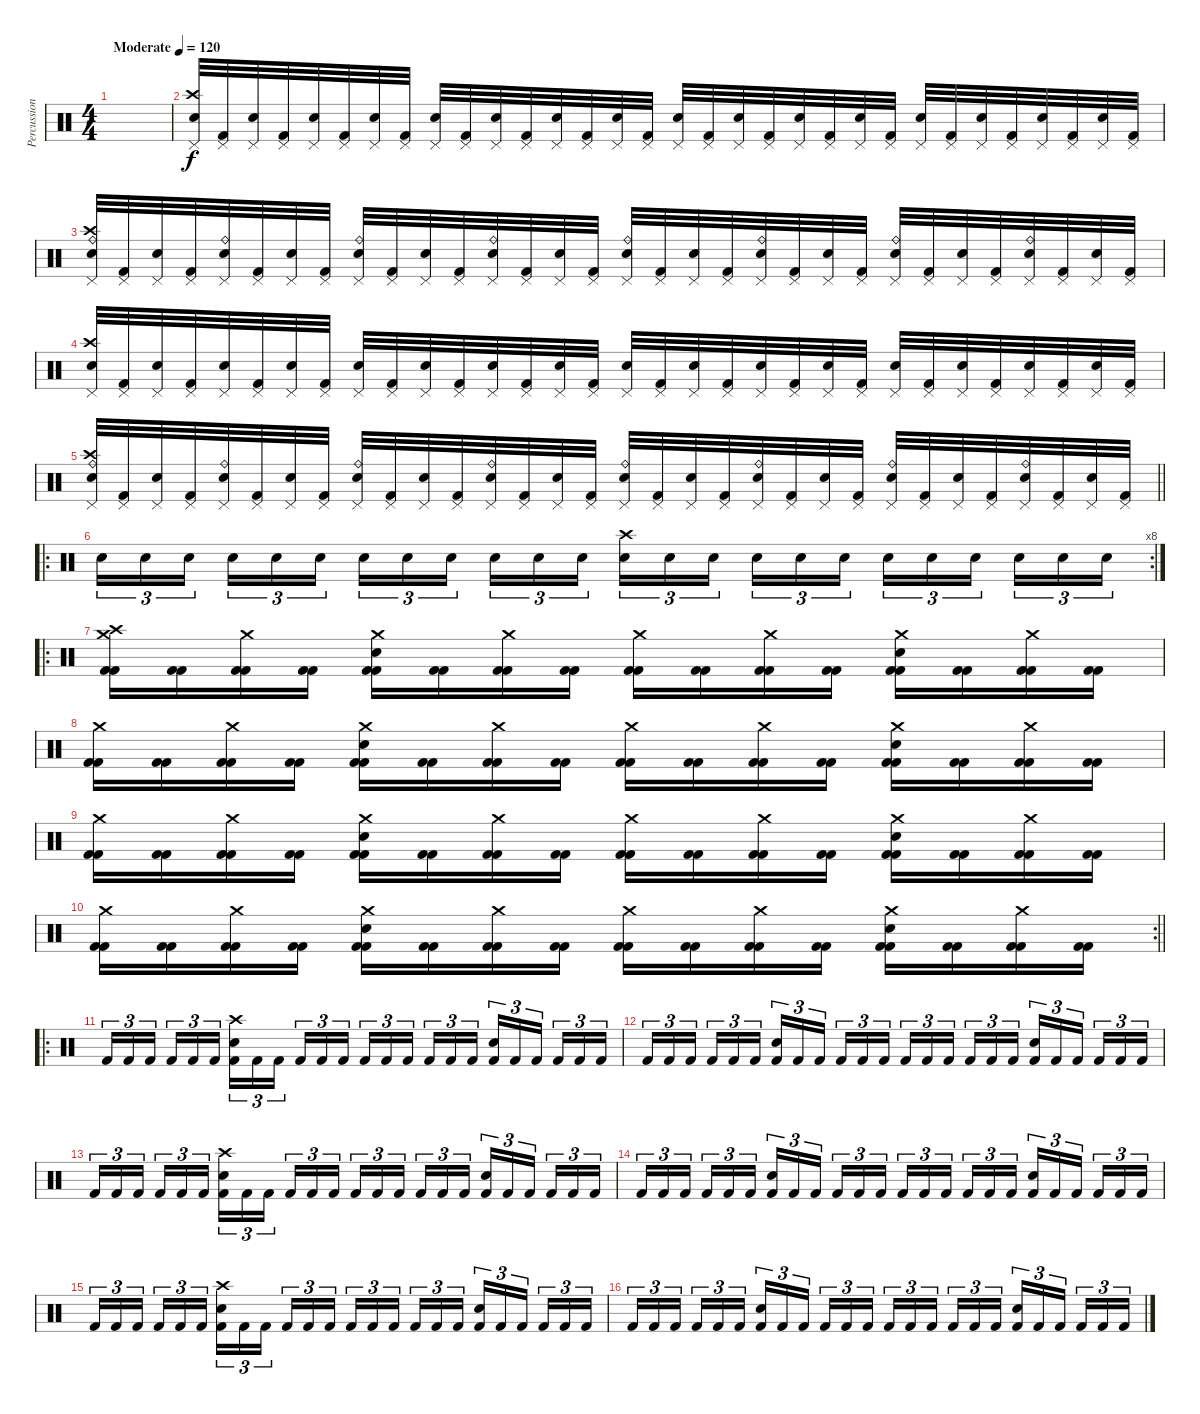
\track ("Percussions" "Percussion") {instrument percussion}
\staff {score}
\articulation defaults
\ts (4 4)
\tempo (120 "Moderate")
\clef neutral
\ks c
|
("Pedal Hi-Hat (hit)" "Crash high (hit)" "Electric Snare (hit)").32{volume 16} ("Pedal Hi-Hat (hit)" "Kick (hit) 2").32 ("Pedal Hi-Hat (hit)" "Electric Snare (hit)").32 ("Pedal Hi-Hat (hit)" "Kick (hit) 2").32 ("Pedal Hi-Hat (hit)" "Electric Snare (hit)").32 ("Pedal Hi-Hat (hit)" "Kick (hit) 2").32 ("Pedal Hi-Hat (hit)" "Electric Snare (hit)").32 ("Pedal Hi-Hat (hit)" "Kick (hit) 2").32 ("Pedal Hi-Hat (hit)" "Electric Snare (hit)").32 ("Pedal Hi-Hat (hit)" "Kick (hit) 2").32 ("Pedal Hi-Hat (hit)" "Electric Snare (hit)").32 ("Pedal Hi-Hat (hit)" "Kick (hit) 2").32 ("Pedal Hi-Hat (hit)" "Electric Snare (hit)").32 ("Pedal Hi-Hat (hit)" "Kick (hit) 2").32 ("Pedal Hi-Hat (hit)" "Electric Snare (hit)").32 ("Pedal Hi-Hat (hit)" "Kick (hit) 2").32 ("Pedal Hi-Hat (hit)" "Electric Snare (hit)").32 ("Pedal Hi-Hat (hit)" "Kick (hit) 2").32 ("Pedal Hi-Hat (hit)" "Electric Snare (hit)").32 ("Pedal Hi-Hat (hit)" "Kick (hit) 2").32 ("Pedal Hi-Hat (hit)" "Electric Snare (hit)").32 ("Pedal Hi-Hat (hit)" "Kick (hit) 2").32 ("Pedal Hi-Hat (hit)" "Electric Snare (hit)").32 ("Pedal Hi-Hat (hit)" "Kick (hit) 2").32 ("Pedal Hi-Hat (hit)" "Electric Snare (hit)").32 ("Pedal Hi-Hat (hit)" "Kick (hit) 2").32 ("Pedal Hi-Hat (hit)" "Electric Snare (hit)").32 ("Pedal Hi-Hat (hit)" "Kick (hit) 2").32 ("Pedal Hi-Hat (hit)" "Electric Snare (hit)").32 ("Pedal Hi-Hat (hit)" "Kick (hit) 2").32 ("Pedal Hi-Hat (hit)" "Electric Snare (hit)").32 ("Pedal Hi-Hat (hit)" "Kick (hit) 2").32 |
("Ride (bell)" "Pedal Hi-Hat (hit)" "Crash high (hit)" "Electric Snare (hit)").32 ("Pedal Hi-Hat (hit)" "Kick (hit) 2").32 ("Pedal Hi-Hat (hit)" "Electric Snare (hit)").32 ("Pedal Hi-Hat (hit)" "Kick (hit) 2").32 ("Ride (bell)" "Pedal Hi-Hat (hit)" "Electric Snare (hit)").32 ("Pedal Hi-Hat (hit)" "Kick (hit) 2").32 ("Pedal Hi-Hat (hit)" "Electric Snare (hit)").32 ("Pedal Hi-Hat (hit)" "Kick (hit) 2").32 ("Ride (bell)" "Pedal Hi-Hat (hit)" "Electric Snare (hit)").32 ("Pedal Hi-Hat (hit)" "Kick (hit) 2").32 ("Pedal Hi-Hat (hit)" "Electric Snare (hit)").32 ("Pedal Hi-Hat (hit)" "Kick (hit) 2").32 ("Ride (bell)" "Pedal Hi-Hat (hit)" "Electric Snare (hit)").32 ("Pedal Hi-Hat (hit)" "Kick (hit) 2").32 ("Pedal Hi-Hat (hit)" "Electric Snare (hit)").32 ("Pedal Hi-Hat (hit)" "Kick (hit) 2").32 ("Ride (bell)" "Pedal Hi-Hat (hit)" "Electric Snare (hit)").32 ("Pedal Hi-Hat (hit)" "Kick (hit) 2").32 ("Pedal Hi-Hat (hit)" "Electric Snare (hit)").32 ("Pedal Hi-Hat (hit)" "Kick (hit) 2").32 ("Ride (bell)" "Pedal Hi-Hat (hit)" "Electric Snare (hit)").32 ("Pedal Hi-Hat (hit)" "Kick (hit) 2").32 ("Pedal Hi-Hat (hit)" "Electric Snare (hit)").32 ("Pedal Hi-Hat (hit)" "Kick (hit) 2").32 ("Ride (bell)" "Pedal Hi-Hat (hit)" "Electric Snare (hit)").32 ("Pedal Hi-Hat (hit)" "Kick (hit) 2").32 ("Pedal Hi-Hat (hit)" "Electric Snare (hit)").32 ("Pedal Hi-Hat (hit)" "Kick (hit) 2").32 ("Ride (bell)" "Pedal Hi-Hat (hit)" "Electric Snare (hit)").32 ("Pedal Hi-Hat (hit)" "Kick (hit) 2").32 ("Pedal Hi-Hat (hit)" "Electric Snare (hit)").32 ("Pedal Hi-Hat (hit)" "Kick (hit) 2").32 |
("Pedal Hi-Hat (hit)" "Crash high (hit)" "Electric Snare (hit)").32 ("Pedal Hi-Hat (hit)" "Kick (hit) 2").32 ("Pedal Hi-Hat (hit)" "Electric Snare (hit)").32 ("Pedal Hi-Hat (hit)" "Kick (hit) 2").32 ("Pedal Hi-Hat (hit)" "Electric Snare (hit)").32 ("Pedal Hi-Hat (hit)" "Kick (hit) 2").32 ("Pedal Hi-Hat (hit)" "Electric Snare (hit)").32 ("Pedal Hi-Hat (hit)" "Kick (hit) 2").32 ("Pedal Hi-Hat (hit)" "Electric Snare (hit)").32 ("Pedal Hi-Hat (hit)" "Kick (hit) 2").32 ("Pedal Hi-Hat (hit)" "Electric Snare (hit)").32 ("Pedal Hi-Hat (hit)" "Kick (hit) 2").32 ("Pedal Hi-Hat (hit)" "Electric Snare (hit)").32 ("Pedal Hi-Hat (hit)" "Kick (hit) 2").32 ("Pedal Hi-Hat (hit)" "Electric Snare (hit)").32 ("Pedal Hi-Hat (hit)" "Kick (hit) 2").32 ("Pedal Hi-Hat (hit)" "Electric Snare (hit)").32 ("Pedal Hi-Hat (hit)" "Kick (hit) 2").32 ("Pedal Hi-Hat (hit)" "Electric Snare (hit)").32 ("Pedal Hi-Hat (hit)" "Kick (hit) 2").32 ("Pedal Hi-Hat (hit)" "Electric Snare (hit)").32 ("Pedal Hi-Hat (hit)" "Kick (hit) 2").32 ("Pedal Hi-Hat (hit)" "Electric Snare (hit)").32 ("Pedal Hi-Hat (hit)" "Kick (hit) 2").32 ("Pedal Hi-Hat (hit)" "Electric Snare (hit)").32 ("Pedal Hi-Hat (hit)" "Kick (hit) 2").32 ("Pedal Hi-Hat (hit)" "Electric Snare (hit)").32 ("Pedal Hi-Hat (hit)" "Kick (hit) 2").32 ("Pedal Hi-Hat (hit)" "Electric Snare (hit)").32 ("Pedal Hi-Hat (hit)" "Kick (hit) 2").32 ("Pedal Hi-Hat (hit)" "Electric Snare (hit)").32 ("Pedal Hi-Hat (hit)" "Kick (hit) 2").32 |
\barLineRight lightlight
("Ride (bell)" "Pedal Hi-Hat (hit)" "Crash high (hit)" "Electric Snare (hit)").32 ("Pedal Hi-Hat (hit)" "Kick (hit) 2").32 ("Pedal Hi-Hat (hit)" "Electric Snare (hit)").32 ("Pedal Hi-Hat (hit)" "Kick (hit) 2").32 ("Ride (bell)" "Pedal Hi-Hat (hit)" "Electric Snare (hit)").32 ("Pedal Hi-Hat (hit)" "Kick (hit) 2").32 ("Pedal Hi-Hat (hit)" "Electric Snare (hit)").32 ("Pedal Hi-Hat (hit)" "Kick (hit) 2").32 ("Ride (bell)" "Pedal Hi-Hat (hit)" "Electric Snare (hit)").32 ("Pedal Hi-Hat (hit)" "Kick (hit) 2").32 ("Pedal Hi-Hat (hit)" "Electric Snare (hit)").32 ("Pedal Hi-Hat (hit)" "Kick (hit) 2").32 ("Ride (bell)" "Pedal Hi-Hat (hit)" "Electric Snare (hit)").32 ("Pedal Hi-Hat (hit)" "Kick (hit) 2").32 ("Pedal Hi-Hat (hit)" "Electric Snare (hit)").32 ("Pedal Hi-Hat (hit)" "Kick (hit) 2").32 ("Ride (bell)" "Pedal Hi-Hat (hit)" "Electric Snare (hit)").32 ("Pedal Hi-Hat (hit)" "Kick (hit) 2").32 ("Pedal Hi-Hat (hit)" "Electric Snare (hit)").32 ("Pedal Hi-Hat (hit)" "Kick (hit) 2").32 ("Ride (bell)" "Pedal Hi-Hat (hit)" "Electric Snare (hit)").32 ("Pedal Hi-Hat (hit)" "Kick (hit) 2").32 ("Pedal Hi-Hat (hit)" "Electric Snare (hit)").32 ("Pedal Hi-Hat (hit)" "Kick (hit) 2").32 ("Ride (bell)" "Pedal Hi-Hat (hit)" "Electric Snare (hit)").32 ("Pedal Hi-Hat (hit)" "Kick (hit) 2").32 ("Pedal Hi-Hat (hit)" "Electric Snare (hit)").32 ("Pedal Hi-Hat (hit)" "Kick (hit) 2").32 ("Ride (bell)" "Pedal Hi-Hat (hit)" "Electric Snare (hit)").32 ("Pedal Hi-Hat (hit)" "Kick (hit) 2").32 ("Pedal Hi-Hat (hit)" "Electric Snare (hit)").32 ("Pedal Hi-Hat (hit)" "Kick (hit) 2").32 |
\ro
\rc 8 "Electric Snare (hit)".16{tu (3 2)} "Snare (hit) 2".16{tu (3 2)} "Electric Snare (hit)".16{tu (3 2) beam splitsecondary} "Snare (hit) 2".16{tu (3 2)} "Electric Snare (hit)".16{tu (3 2)} "Snare (hit) 2".16{tu (3 2)} "Electric Snare (hit)".16{tu (3 2)} "Snare (hit) 2".16{tu (3 2)} "Electric Snare (hit)".16{tu (3 2) beam splitsecondary} "Snare (hit) 2".16{tu (3 2)} "Electric Snare (hit)".16{tu (3 2)} "Snare (hit) 2".16{tu (3 2)}
("Crash high (hit)" "Electric Snare (hit)").16{tu (3 2)} "Snare (hit) 2".16{tu (3 2)} "Electric Snare (hit)".16{tu (3 2) beam splitsecondary} "Snare (hit) 2".16{tu (3 2)} "Electric Snare (hit)".16{tu (3 2)} "Snare (hit) 2".16{tu (3 2)} "Electric Snare (hit)".16{tu (3 2)} "Snare (hit) 2".16{tu (3 2)} "Electric Snare (hit)".16{tu (3 2) beam splitsecondary} "Snare (hit) 2".16{tu (3 2)} "Electric Snare (hit)".16{tu (3 2)} "Snare (hit) 2".16{tu (3 2)} |
\ro
("Kick (hit) 2" "Crash medium (hit)" "Crash high (hit)" "Kick (hit) 2").16 ("Kick (hit) 2" "Kick (hit) 2").16 ("Kick (hit) 2" "Crash medium (hit)" "Kick (hit) 2").16 ("Kick (hit) 2" "Kick (hit) 2").16 ("Kick (hit) 2" "Crash medium (hit)" "Electric Snare (hit)" "Kick (hit) 2").16 ("Kick (hit) 2" "Kick (hit) 2").16 ("Kick (hit) 2" "Crash medium (hit)" "Kick (hit) 2").16 ("Kick (hit) 2" "Kick (hit) 2").16 ("Kick (hit) 2" "Crash medium (hit)" "Kick (hit) 2").16 ("Kick (hit) 2" "Kick (hit) 2").16 ("Kick (hit) 2" "Crash medium (hit)" "Kick (hit) 2").16 ("Kick (hit) 2" "Kick (hit) 2").16 ("Kick (hit) 2" "Crash medium (hit)" "Electric Snare (hit)" "Kick (hit) 2").16 ("Kick (hit) 2" "Kick (hit) 2").16 ("Kick (hit) 2" "Crash medium (hit)" "Kick (hit) 2").16 ("Kick (hit) 2" "Kick (hit) 2").16 |
("Kick (hit) 2" "Crash medium (hit)" "Kick (hit) 2").16 ("Kick (hit) 2" "Kick (hit) 2").16 ("Kick (hit) 2" "Crash medium (hit)" "Kick (hit) 2").16 ("Kick (hit) 2" "Kick (hit) 2").16 ("Kick (hit) 2" "Crash medium (hit)" "Electric Snare (hit)" "Kick (hit) 2").16 ("Kick (hit) 2" "Kick (hit) 2").16 ("Kick (hit) 2" "Crash medium (hit)" "Kick (hit) 2").16 ("Kick (hit) 2" "Kick (hit) 2").16 ("Kick (hit) 2" "Crash medium (hit)" "Kick (hit) 2").16 ("Kick (hit) 2" "Kick (hit) 2").16 ("Kick (hit) 2" "Crash medium (hit)" "Kick (hit) 2").16 ("Kick (hit) 2" "Kick (hit) 2").16 ("Kick (hit) 2" "Crash medium (hit)" "Electric Snare (hit)" "Kick (hit) 2").16 ("Kick (hit) 2" "Kick (hit) 2").16 ("Kick (hit) 2" "Crash medium (hit)" "Kick (hit) 2").16 ("Kick (hit) 2" "Kick (hit) 2").16 |
("Kick (hit) 2" "Crash medium (hit)" "Kick (hit) 2").16 ("Kick (hit) 2" "Kick (hit) 2").16 ("Kick (hit) 2" "Crash medium (hit)" "Kick (hit) 2").16 ("Kick (hit) 2" "Kick (hit) 2").16 ("Kick (hit) 2" "Crash medium (hit)" "Electric Snare (hit)" "Kick (hit) 2").16 ("Kick (hit) 2" "Kick (hit) 2").16 ("Kick (hit) 2" "Crash medium (hit)" "Kick (hit) 2").16 ("Kick (hit) 2" "Kick (hit) 2").16 ("Kick (hit) 2" "Crash medium (hit)" "Kick (hit) 2").16 ("Kick (hit) 2" "Kick (hit) 2").16 ("Kick (hit) 2" "Crash medium (hit)" "Kick (hit) 2").16 ("Kick (hit) 2" "Kick (hit) 2").16 ("Kick (hit) 2" "Crash medium (hit)" "Electric Snare (hit)" "Kick (hit) 2").16 ("Kick (hit) 2" "Kick (hit) 2").16 ("Kick (hit) 2" "Crash medium (hit)" "Kick (hit) 2").16 ("Kick (hit) 2" "Kick (hit) 2").16 |
\rc 2
\barLineRight lightlight
("Kick (hit) 2" "Crash medium (hit)" "Kick (hit) 2").16 ("Kick (hit) 2" "Kick (hit) 2").16 ("Kick (hit) 2" "Crash medium (hit)" "Kick (hit) 2").16 ("Kick (hit) 2" "Kick (hit) 2").16 ("Kick (hit) 2" "Crash medium (hit)" "Electric Snare (hit)" "Kick (hit) 2").16 ("Kick (hit) 2" "Kick (hit) 2").16 ("Kick (hit) 2" "Crash medium (hit)" "Kick (hit) 2").16 ("Kick (hit) 2" "Kick (hit) 2").16 ("Kick (hit) 2" "Crash medium (hit)" "Kick (hit) 2").16 ("Kick (hit) 2" "Kick (hit) 2").16 ("Kick (hit) 2" "Crash medium (hit)" "Kick (hit) 2").16 ("Kick (hit) 2" "Kick (hit) 2").16 ("Kick (hit) 2" "Crash medium (hit)" "Electric Snare (hit)" "Kick (hit) 2").16 ("Kick (hit) 2" "Kick (hit) 2").16 ("Kick (hit) 2" "Crash medium (hit)" "Kick (hit) 2").16 ("Kick (hit) 2" "Kick (hit) 2").16 |
\ro "Kick (hit) 2".16{tu (3 2)} "Kick (hit) 2".16{tu (3 2)} "Kick (hit) 2".16{tu (3 2) beam splitsecondary} "Kick (hit) 2".16{tu (3 2)} "Kick (hit) 2".16{tu (3 2)} "Kick (hit) 2".16{tu (3 2)}
("Snare (hit) 2" "Crash high (hit)" "Kick (hit) 2").16{tu (3 2)} "Kick (hit) 2".16{tu (3 2)} "Kick (hit) 2".16{tu (3 2) beam splitsecondary} "Kick (hit) 2".16{tu (3 2)} "Kick (hit) 2".16{tu (3 2)} "Kick (hit) 2".16{tu (3 2)} "Kick (hit) 2".16{tu (3 2)} "Kick (hit) 2".16{tu (3 2)} "Kick (hit) 2".16{tu (3 2) beam splitsecondary} "Kick (hit) 2".16{tu (3 2)} "Kick (hit) 2".16{tu (3 2)} "Kick (hit) 2".16{tu (3 2)} ("Snare (hit) 2" "Kick (hit) 2").16{tu (3 2)} "Kick (hit) 2".16{tu (3 2)} "Kick (hit) 2".16{tu (3 2) beam splitsecondary} "Kick (hit) 2".16{tu (3 2)} "Kick (hit) 2".16{tu (3 2)} "Kick (hit) 2".16{tu (3 2)} |
"Kick (hit) 2".16{tu (3 2)} "Kick (hit) 2".16{tu (3 2)} "Kick (hit) 2".16{tu (3 2) beam splitsecondary} "Kick (hit) 2".16{tu (3 2)} "Kick (hit) 2".16{tu (3 2)} "Kick (hit) 2".16{tu (3 2)} ("Snare (hit) 2" "Kick (hit) 2").16{tu (3 2)} "Kick (hit) 2".16{tu (3 2)} "Kick (hit) 2".16{tu (3 2) beam splitsecondary} "Kick (hit) 2".16{tu (3 2)} "Kick (hit) 2".16{tu (3 2)} "Kick (hit) 2".16{tu (3 2)} "Kick (hit) 2".16{tu (3 2)} "Kick (hit) 2".16{tu (3 2)} "Kick (hit) 2".16{tu (3 2) beam splitsecondary} "Kick (hit) 2".16{tu (3 2)} "Kick (hit) 2".16{tu (3 2)} "Kick (hit) 2".16{tu (3 2)} ("Snare (hit) 2" "Kick (hit) 2").16{tu (3 2)} "Kick (hit) 2".16{tu (3 2)} "Kick (hit) 2".16{tu (3 2) beam splitsecondary} "Kick (hit) 2".16{tu (3 2)} "Kick (hit) 2".16{tu (3 2)} "Kick (hit) 2".16{tu (3 2)} |
"Kick (hit) 2".16{tu (3 2)} "Kick (hit) 2".16{tu (3 2)} "Kick (hit) 2".16{tu (3 2) beam splitsecondary} "Kick (hit) 2".16{tu (3 2)} "Kick (hit) 2".16{tu (3 2)} "Kick (hit) 2".16{tu (3 2)} ("Snare (hit) 2" "Crash high (hit)" "Kick (hit) 2").16{tu (3 2)} "Kick (hit) 2".16{tu (3 2)} "Kick (hit) 2".16{tu (3 2) beam splitsecondary} "Kick (hit) 2".16{tu (3 2)} "Kick (hit) 2".16{tu (3 2)} "Kick (hit) 2".16{tu (3 2)} "Kick (hit) 2".16{tu (3 2)} "Kick (hit) 2".16{tu (3 2)} "Kick (hit) 2".16{tu (3 2) beam splitsecondary} "Kick (hit) 2".16{tu (3 2)} "Kick (hit) 2".16{tu (3 2)} "Kick (hit) 2".16{tu (3 2)} ("Snare (hit) 2" "Kick (hit) 2").16{tu (3 2)} "Kick (hit) 2".16{tu (3 2)} "Kick (hit) 2".16{tu (3 2) beam splitsecondary} "Kick (hit) 2".16{tu (3 2)} "Kick (hit) 2".16{tu (3 2)} "Kick (hit) 2".16{tu (3 2)} |
"Kick (hit) 2".16{tu (3 2)} "Kick (hit) 2".16{tu (3 2)} "Kick (hit) 2".16{tu (3 2) beam splitsecondary} "Kick (hit) 2".16{tu (3 2)} "Kick (hit) 2".16{tu (3 2)} "Kick (hit) 2".16{tu (3 2)} ("Snare (hit) 2" "Kick (hit) 2").16{tu (3 2)} "Kick (hit) 2".16{tu (3 2)} "Kick (hit) 2".16{tu (3 2) beam splitsecondary} "Kick (hit) 2".16{tu (3 2)} "Kick (hit) 2".16{tu (3 2)} "Kick (hit) 2".16{tu (3 2)} "Kick (hit) 2".16{tu (3 2)} "Kick (hit) 2".16{tu (3 2)} "Kick (hit) 2".16{tu (3 2) beam splitsecondary} "Kick (hit) 2".16{tu (3 2)} "Kick (hit) 2".16{tu (3 2)} "Kick (hit) 2".16{tu (3 2)} ("Snare (hit) 2" "Kick (hit) 2").16{tu (3 2)} "Kick (hit) 2".16{tu (3 2)} "Kick (hit) 2".16{tu (3 2) beam splitsecondary} "Kick (hit) 2".16{tu (3 2)} "Kick (hit) 2".16{tu (3 2)} "Kick (hit) 2".16{tu (3 2)} |
"Kick (hit) 2".16{tu (3 2)} "Kick (hit) 2".16{tu (3 2)} "Kick (hit) 2".16{tu (3 2) beam splitsecondary} "Kick (hit) 2".16{tu (3 2)} "Kick (hit) 2".16{tu (3 2)} "Kick (hit) 2".16{tu (3 2)} ("Snare (hit) 2" "Crash high (hit)" "Kick (hit) 2").16{tu (3 2)} "Kick (hit) 2".16{tu (3 2)} "Kick (hit) 2".16{tu (3 2) beam splitsecondary} "Kick (hit) 2".16{tu (3 2)} "Kick (hit) 2".16{tu (3 2)} "Kick (hit) 2".16{tu (3 2)} "Kick (hit) 2".16{tu (3 2)} "Kick (hit) 2".16{tu (3 2)} "Kick (hit) 2".16{tu (3 2) beam splitsecondary} "Kick (hit) 2".16{tu (3 2)} "Kick (hit) 2".16{tu (3 2)} "Kick (hit) 2".16{tu (3 2)} ("Snare (hit) 2" "Kick (hit) 2").16{tu (3 2)} "Kick (hit) 2".16{tu (3 2)} "Kick (hit) 2".16{tu (3 2) beam splitsecondary} "Kick (hit) 2".16{tu (3 2)} "Kick (hit) 2".16{tu (3 2)} "Kick (hit) 2".16{tu (3 2)} |
"Kick (hit) 2".16{tu (3 2)} "Kick (hit) 2".16{tu (3 2)} "Kick (hit) 2".16{tu (3 2) beam splitsecondary} "Kick (hit) 2".16{tu (3 2)} "Kick (hit) 2".16{tu (3 2)} "Kick (hit) 2".16{tu (3 2)} ("Snare (hit) 2" "Kick (hit) 2").16{tu (3 2)} "Kick (hit) 2".16{tu (3 2)} "Kick (hit) 2".16{tu (3 2) beam splitsecondary} "Kick (hit) 2".16{tu (3 2)} "Kick (hit) 2".16{tu (3 2)} "Kick (hit) 2".16{tu (3 2)} "Kick (hit) 2".16{tu (3 2)} "Kick (hit) 2".16{tu (3 2)} "Kick (hit) 2".16{tu (3 2) beam splitsecondary} "Kick (hit) 2".16{tu (3 2)} "Kick (hit) 2".16{tu (3 2)} "Kick (hit) 2".16{tu (3 2)} ("Snare (hit) 2" "Kick (hit) 2").16{tu (3 2)} "Kick (hit) 2".16{tu (3 2)} "Kick (hit) 2".16{tu (3 2) beam splitsecondary} "Kick (hit) 2".16{tu (3 2)} "Kick (hit) 2".16{tu (3 2)} "Kick (hit) 2".16{tu (3 2)}
